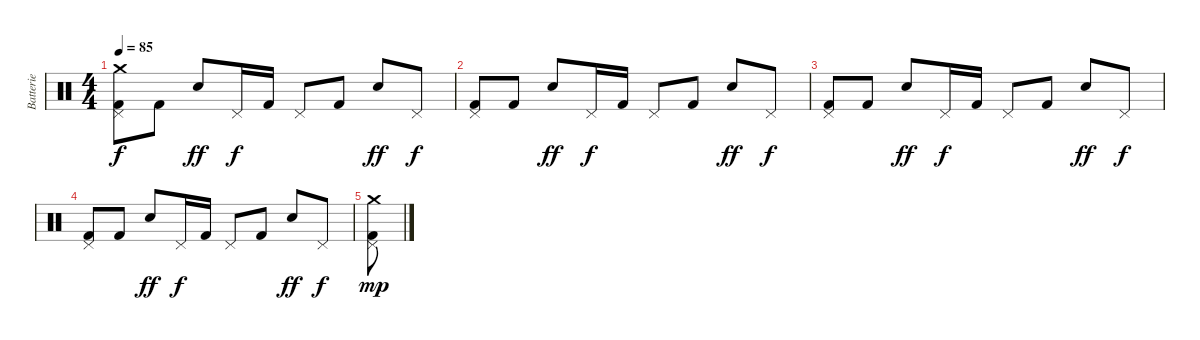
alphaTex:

\track ("Batterie" "Batterie") {instrument percussion}
\staff {score}
\articulation defaults
\ts (4 4)
\tempo 85
\clef neutral
\ks c
("Crash medium (hit)" "Pedal Hi-Hat (hit)" "Kick (hit) 2").8{dy f} "Kick (hit) 2".8 "Electric Snare (hit)".8{dy ff} "Pedal Hi-Hat (hit)".16{dy f} "Kick (hit) 2".16 "Pedal Hi-Hat (hit)".8 "Kick (hit) 2".8 "Electric Snare (hit)".8{dy ff} "Pedal Hi-Hat (hit)".8{dy f} |
("Pedal Hi-Hat (hit)" "Kick (hit) 2").8 "Kick (hit) 2".8 "Electric Snare (hit)".8{dy ff} "Pedal Hi-Hat (hit)".16{dy f} "Kick (hit) 2".16 "Pedal Hi-Hat (hit)".8 "Kick (hit) 2".8 "Electric Snare (hit)".8{dy ff} "Pedal Hi-Hat (hit)".8{dy f} |
("Pedal Hi-Hat (hit)" "Kick (hit) 2").8 "Kick (hit) 2".8 "Electric Snare (hit)".8{dy ff} "Pedal Hi-Hat (hit)".16{dy f} "Kick (hit) 2".16 "Pedal Hi-Hat (hit)".8 "Kick (hit) 2".8 "Electric Snare (hit)".8{dy ff} "Pedal Hi-Hat (hit)".8{dy f} |
("Pedal Hi-Hat (hit)" "Kick (hit) 2").8 "Kick (hit) 2".8 "Electric Snare (hit)".8{dy ff} "Pedal Hi-Hat (hit)".16{dy f} "Kick (hit) 2".16 "Pedal Hi-Hat (hit)".8 "Kick (hit) 2".8 "Electric Snare (hit)".8{dy ff} "Pedal Hi-Hat (hit)".8{dy f} |
("Crash medium (hit)" "Pedal Hi-Hat (hit)" "Kick (hit) 2").8{dy mp}
